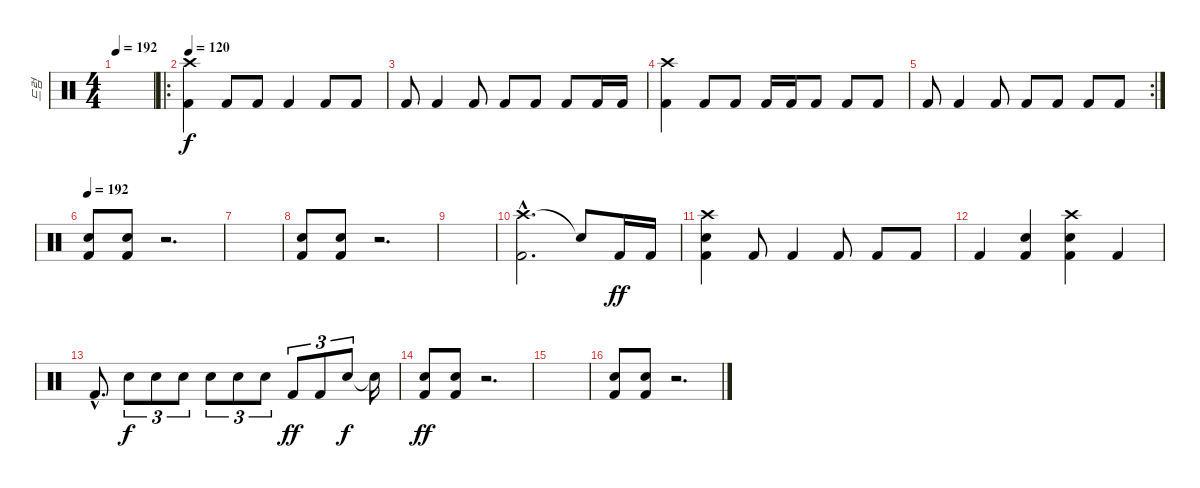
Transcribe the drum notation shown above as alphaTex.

\track ("드럼" "드럼") {instrument percussion}
\staff {score}
\articulation defaults
\ts (4 4)
\tempo 192
\tempo 120
\tempo 192
\clef neutral
\ks c
|
\ro
\tempo 120
("Crash high (hit)" "Kick (hit) 2").4 "Kick (hit) 2".8 "Kick (hit) 2".8 "Kick (hit) 2".4 "Kick (hit) 2".8 "Kick (hit) 2".8 |
"Kick (hit) 2".8 "Kick (hit) 2".4 "Kick (hit) 2".8 "Kick (hit) 2".8 "Kick (hit) 2".8 "Kick (hit) 2".8 "Kick (hit) 2".16 "Kick (hit) 2".16 |
("Crash high (hit)" "Kick (hit) 2").4 "Kick (hit) 2".8 "Kick (hit) 2".8 "Kick (hit) 2".16 "Kick (hit) 2".16 "Kick (hit) 2".8 "Kick (hit) 2".8 "Kick (hit) 2".8 |
\rc 2 "Kick (hit) 2".8 "Kick (hit) 2".4 "Kick (hit) 2".8 "Kick (hit) 2".8 "Kick (hit) 2".8 "Kick (hit) 2".8 "Kick (hit) 2".8
|
\tempo 192
("Snare (hit) 2" "Kick (hit) 2").8 ("Snare (hit) 2" "Kick (hit) 2").8 r.2{d} |
|
("Snare (hit) 2" "Kick (hit) 2").8 ("Snare (hit) 2" "Kick (hit) 2").8 r.2{d} |
|
("Crash high (hit)"{hac} "Kick (hit) 2"{hac}).2{d} "Snare (hit)"{t}.8{dy f} "Kick (hit) 2".16{dy ff} "Kick (hit) 2".16 |
("Crash high (hit)" "Electric Snare (hit)" "Kick (hit) 2").4 "Kick (hit) 2".8 "Kick (hit) 2".4 "Kick (hit) 2".8 "Kick (hit) 2".8 "Kick (hit) 2".8 |
"Kick (hit) 2".4 ("Electric Snare (hit)" "Kick (hit) 2").4 ("Crash high (hit)" "Electric Snare (hit)" "Kick (hit) 2").4 "Kick (hit) 2".4 |
"Kick (hit) 2"{hac}.8{d} "Electric Snare (hit)".8{tu (3 2) dy f} "Electric Snare (hit)".8{tu (3 2)} "Electric Snare (hit)".8{tu (3 2)} "Electric Snare (hit)".8{tu (3 2)} "Electric Snare (hit)".8{tu (3 2)} "Electric Snare (hit)".8{tu (3 2)} "Kick (hit) 2".8{tu (3 2) dy ff} "Kick (hit) 2".8{tu (3 2)} "Electric Snare (hit)".8{tu (3 2) dy f} "Snare (hit)"{t}.16 |
("Snare (hit) 2" "Kick (hit) 2").8{dy ff} ("Snare (hit) 2" "Kick (hit) 2").8 r.2{d} |
|
("Snare (hit) 2" "Kick (hit) 2").8 ("Snare (hit) 2" "Kick (hit) 2").8 r.2{d}
